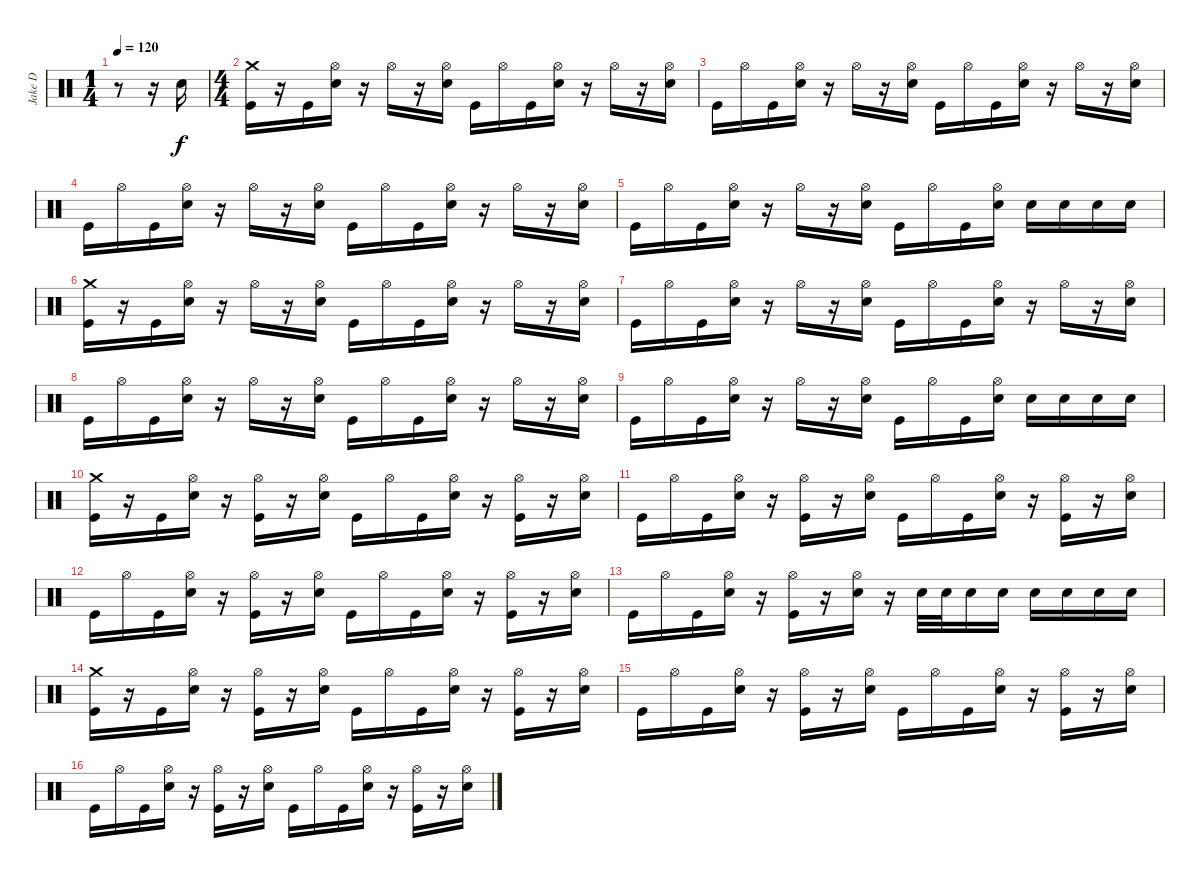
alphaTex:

\track ("Jake D" "Jake D") {instrument percussion}
\staff {score}
\articulation defaults
\ts (1 4)
\tempo 120
\clef neutral
\ks c
r.8{dy f} r.16 "Electric Snare (hit)".16 |
\ts (4 4)
("Crash medium (hit)" "Kick (hit)").16 r.16 "Kick (hit)".16 ("Hi-Hat (open)" "Electric Snare (hit)").16 r.16 "Hi-Hat (open)".16 r.16 ("Hi-Hat (open)" "Electric Snare (hit)").16 "Kick (hit)".16 "Hi-Hat (open)".16 "Kick (hit)".16 ("Hi-Hat (open)" "Electric Snare (hit)").16 r.16 "Hi-Hat (open)".16 r.16 ("Hi-Hat (open)" "Electric Snare (hit)").16 |
"Kick (hit)".16 "Hi-Hat (open)".16 "Kick (hit)".16 ("Hi-Hat (open)" "Electric Snare (hit)").16 r.16 "Hi-Hat (open)".16 r.16 ("Hi-Hat (open)" "Electric Snare (hit)").16 "Kick (hit)".16 "Hi-Hat (open)".16 "Kick (hit)".16 ("Hi-Hat (open)" "Electric Snare (hit)").16 r.16 "Hi-Hat (open)".16 r.16 ("Hi-Hat (open)" "Electric Snare (hit)").16 |
"Kick (hit)".16 "Hi-Hat (open)".16 "Kick (hit)".16 ("Hi-Hat (open)" "Electric Snare (hit)").16 r.16 "Hi-Hat (open)".16 r.16 ("Hi-Hat (open)" "Electric Snare (hit)").16 "Kick (hit)".16 "Hi-Hat (open)".16 "Kick (hit)".16 ("Hi-Hat (open)" "Electric Snare (hit)").16 r.16 "Hi-Hat (open)".16 r.16 ("Hi-Hat (open)" "Electric Snare (hit)").16 |
"Kick (hit)".16 "Hi-Hat (open)".16 "Kick (hit)".16 ("Hi-Hat (open)" "Electric Snare (hit)").16 r.16 "Hi-Hat (open)".16 r.16 ("Hi-Hat (open)" "Electric Snare (hit)").16 "Kick (hit)".16 "Hi-Hat (open)".16 "Kick (hit)".16 ("Hi-Hat (open)" "Electric Snare (hit)").16 "Electric Snare (hit)".16 "Electric Snare (hit)".16 "Electric Snare (hit)".16 "Electric Snare (hit)".16 |
("Crash medium (hit)" "Kick (hit)").16 r.16 "Kick (hit)".16 ("Hi-Hat (open)" "Electric Snare (hit)").16 r.16 "Hi-Hat (open)".16 r.16 ("Hi-Hat (open)" "Electric Snare (hit)").16 "Kick (hit)".16 "Hi-Hat (open)".16 "Kick (hit)".16 ("Hi-Hat (open)" "Electric Snare (hit)").16 r.16 "Hi-Hat (open)".16 r.16 ("Hi-Hat (open)" "Electric Snare (hit)").16 |
"Kick (hit)".16 "Hi-Hat (open)".16 "Kick (hit)".16 ("Hi-Hat (open)" "Electric Snare (hit)").16 r.16 "Hi-Hat (open)".16 r.16 ("Hi-Hat (open)" "Electric Snare (hit)").16 "Kick (hit)".16 "Hi-Hat (open)".16 "Kick (hit)".16 ("Hi-Hat (open)" "Electric Snare (hit)").16 r.16 "Hi-Hat (open)".16 r.16 ("Hi-Hat (open)" "Electric Snare (hit)").16 |
"Kick (hit)".16 "Hi-Hat (open)".16 "Kick (hit)".16 ("Hi-Hat (open)" "Electric Snare (hit)").16 r.16 "Hi-Hat (open)".16 r.16 ("Hi-Hat (open)" "Electric Snare (hit)").16 "Kick (hit)".16 "Hi-Hat (open)".16 "Kick (hit)".16 ("Hi-Hat (open)" "Electric Snare (hit)").16 r.16 "Hi-Hat (open)".16 r.16 ("Hi-Hat (open)" "Electric Snare (hit)").16 |
"Kick (hit)".16 "Hi-Hat (open)".16 "Kick (hit)".16 ("Hi-Hat (open)" "Electric Snare (hit)").16 r.16 "Hi-Hat (open)".16 r.16 ("Hi-Hat (open)" "Electric Snare (hit)").16 "Kick (hit)".16 "Hi-Hat (open)".16 "Kick (hit)".16 ("Hi-Hat (open)" "Electric Snare (hit)").16 "Electric Snare (hit)".16 "Electric Snare (hit)".16 "Electric Snare (hit)".16 "Electric Snare (hit)".16 |
("Crash medium (hit)" "Kick (hit)").16 r.16 "Kick (hit)".16 ("Hi-Hat (open)" "Electric Snare (hit)").16 r.16 ("Hi-Hat (open)" "Kick (hit)").16 r.16 ("Hi-Hat (open)" "Electric Snare (hit)").16 "Kick (hit)".16 "Hi-Hat (open)".16 "Kick (hit)".16 ("Hi-Hat (open)" "Electric Snare (hit)").16 r.16 ("Hi-Hat (open)" "Kick (hit)").16 r.16 ("Hi-Hat (open)" "Electric Snare (hit)").16 |
"Kick (hit)".16 "Hi-Hat (open)".16 "Kick (hit)".16 ("Hi-Hat (open)" "Electric Snare (hit)").16 r.16 ("Hi-Hat (open)" "Kick (hit)").16 r.16 ("Hi-Hat (open)" "Electric Snare (hit)").16 "Kick (hit)".16 "Hi-Hat (open)".16 "Kick (hit)".16 ("Hi-Hat (open)" "Electric Snare (hit)").16 r.16 ("Hi-Hat (open)" "Kick (hit)").16 r.16 ("Hi-Hat (open)" "Electric Snare (hit)").16 |
"Kick (hit)".16 "Hi-Hat (open)".16 "Kick (hit)".16 ("Hi-Hat (open)" "Electric Snare (hit)").16 r.16 ("Hi-Hat (open)" "Kick (hit)").16 r.16 ("Hi-Hat (open)" "Electric Snare (hit)").16 "Kick (hit)".16 "Hi-Hat (open)".16 "Kick (hit)".16 ("Hi-Hat (open)" "Electric Snare (hit)").16 r.16 ("Hi-Hat (open)" "Kick (hit)").16 r.16 ("Hi-Hat (open)" "Electric Snare (hit)").16 |
"Kick (hit)".16 "Hi-Hat (open)".16 "Kick (hit)".16 ("Hi-Hat (open)" "Electric Snare (hit)").16 r.16 ("Hi-Hat (open)" "Kick (hit)").16 r.16 ("Hi-Hat (open)" "Electric Snare (hit)").16 r.16 "Electric Snare (hit)".32 "Electric Snare (hit)".32 "Electric Snare (hit)".16 "Electric Snare (hit)".16 "Electric Snare (hit)".16 "Electric Snare (hit)".16 "Electric Snare (hit)".16 "Electric Snare (hit)".16 |
("Crash medium (hit)" "Kick (hit)").16 r.16 "Kick (hit)".16 ("Hi-Hat (open)" "Electric Snare (hit)").16 r.16 ("Hi-Hat (open)" "Kick (hit)").16 r.16 ("Hi-Hat (open)" "Electric Snare (hit)").16 "Kick (hit)".16 "Hi-Hat (open)".16 "Kick (hit)".16 ("Hi-Hat (open)" "Electric Snare (hit)").16 r.16 ("Hi-Hat (open)" "Kick (hit)").16 r.16 ("Hi-Hat (open)" "Electric Snare (hit)").16 |
"Kick (hit)".16 "Hi-Hat (open)".16 "Kick (hit)".16 ("Hi-Hat (open)" "Electric Snare (hit)").16 r.16 ("Hi-Hat (open)" "Kick (hit)").16 r.16 ("Hi-Hat (open)" "Electric Snare (hit)").16 "Kick (hit)".16 "Hi-Hat (open)".16 "Kick (hit)".16 ("Hi-Hat (open)" "Electric Snare (hit)").16 r.16 ("Hi-Hat (open)" "Kick (hit)").16 r.16 ("Hi-Hat (open)" "Electric Snare (hit)").16 |
"Kick (hit)".16 "Hi-Hat (open)".16 "Kick (hit)".16 ("Hi-Hat (open)" "Electric Snare (hit)").16 r.16 ("Hi-Hat (open)" "Kick (hit)").16 r.16 ("Hi-Hat (open)" "Electric Snare (hit)").16 "Kick (hit)".16 "Hi-Hat (open)".16 "Kick (hit)".16 ("Hi-Hat (open)" "Electric Snare (hit)").16 r.16 ("Hi-Hat (open)" "Kick (hit)").16 r.16 ("Hi-Hat (open)" "Electric Snare (hit)").16
